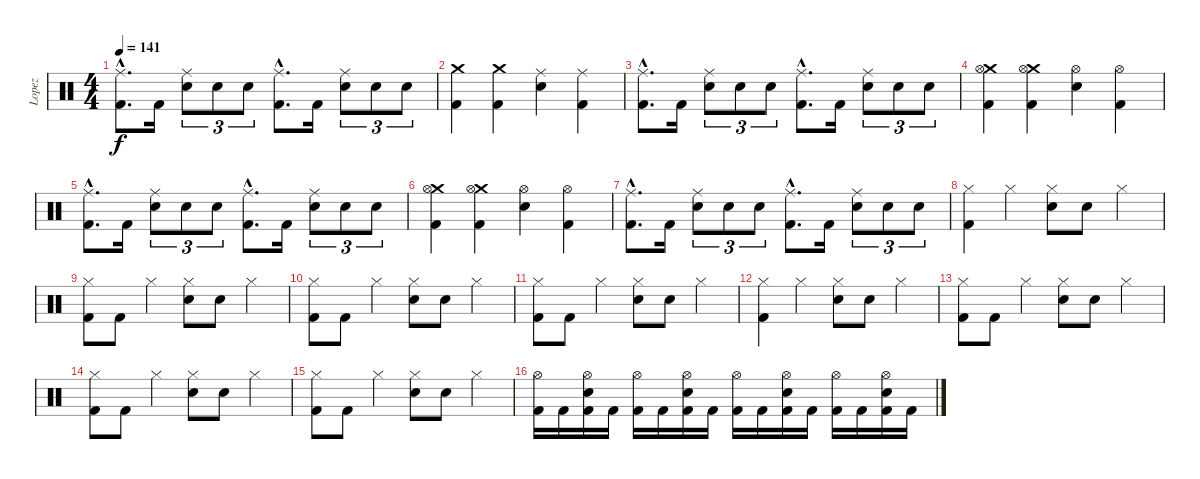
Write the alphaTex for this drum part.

\track ("Lopez" "Lopez") {instrument percussion}
\staff {score}
\articulation defaults
\ts (4 4)
\tempo 141
\clef neutral
\ks c
("Ride (middle)"{hac} "Kick (hit) 2"{hac}).8{d dy f} "Kick (hit) 2".16 ("Ride (middle)" "Electric Snare (hit)").8{tu (3 2)} "Electric Snare (hit)".8{tu (3 2)} "Electric Snare (hit)".8{tu (3 2)} ("Ride (middle)"{hac} "Kick (hit) 2"{hac}).8{d} "Kick (hit) 2".16 ("Ride (middle)" "Electric Snare (hit)").8{tu (3 2)} "Electric Snare (hit)".8{tu (3 2)} "Electric Snare (hit)".8{tu (3 2)} |
("Crash medium (hit)" "Kick (hit) 2").4 ("Crash medium (hit)" "Kick (hit) 2").4 ("Ride (middle)" "Electric Snare (hit)").4 ("Ride (middle)" "Kick (hit) 2").4 |
("Ride (middle)"{hac} "Kick (hit) 2"{hac}).8{d} "Kick (hit) 2".16 ("Ride (middle)" "Electric Snare (hit)").8{tu (3 2)} "Electric Snare (hit)".8{tu (3 2)} "Electric Snare (hit)".8{tu (3 2)} ("Ride (middle)"{hac} "Kick (hit) 2"{hac}).8{d} "Kick (hit) 2".16 ("Ride (middle)" "Electric Snare (hit)").8{tu (3 2)} "Electric Snare (hit)".8{tu (3 2)} "Electric Snare (hit)".8{tu (3 2)} |
("Crash medium (hit)" "Hi-Hat (open)" "Kick (hit) 2").4 ("Crash medium (hit)" "Hi-Hat (open)" "Kick (hit) 2").4 ("Hi-Hat (open)" "Electric Snare (hit)").4 ("Hi-Hat (open)" "Kick (hit) 2").4 |
("Ride (middle)"{hac} "Kick (hit) 2"{hac}).8{d} "Kick (hit) 2".16 ("Ride (middle)" "Electric Snare (hit)").8{tu (3 2)} "Electric Snare (hit)".8{tu (3 2)} "Electric Snare (hit)".8{tu (3 2)} ("Ride (middle)"{hac} "Kick (hit) 2"{hac}).8{d} "Kick (hit) 2".16 ("Ride (middle)" "Electric Snare (hit)").8{tu (3 2)} "Electric Snare (hit)".8{tu (3 2)} "Electric Snare (hit)".8{tu (3 2)} |
("Crash medium (hit)" "Hi-Hat (open)" "Kick (hit) 2").4 ("Crash medium (hit)" "Hi-Hat (open)" "Kick (hit) 2").4 ("Hi-Hat (open)" "Electric Snare (hit)").4 ("Hi-Hat (open)" "Kick (hit) 2").4 |
("Ride (middle)"{hac} "Kick (hit) 2"{hac}).8{d} "Kick (hit) 2".16 ("Ride (middle)" "Electric Snare (hit)").8{tu (3 2)} "Electric Snare (hit)".8{tu (3 2)} "Electric Snare (hit)".8{tu (3 2)} ("Ride (middle)"{hac} "Kick (hit) 2"{hac}).8{d} "Kick (hit) 2".16 ("Ride (middle)" "Electric Snare (hit)").8{tu (3 2)} "Electric Snare (hit)".8{tu (3 2)} "Electric Snare (hit)".8{tu (3 2)} |
("Hi-Hat (closed)" "Kick (hit) 2").4 "Hi-Hat (closed)".4 ("Hi-Hat (closed)" "Electric Snare (hit)").8 "Electric Snare (hit)".8 "Hi-Hat (closed)".4 |
("Hi-Hat (closed)" "Kick (hit) 2").8 "Kick (hit) 2".8 "Hi-Hat (closed)".4 ("Hi-Hat (closed)" "Electric Snare (hit)").8 "Electric Snare (hit)".8 "Hi-Hat (closed)".4 |
("Hi-Hat (closed)" "Kick (hit) 2").8 "Kick (hit) 2".8 "Hi-Hat (closed)".4 ("Hi-Hat (closed)" "Electric Snare (hit)").8 "Electric Snare (hit)".8 "Hi-Hat (closed)".4 |
("Hi-Hat (closed)" "Kick (hit) 2").8 "Kick (hit) 2".8 "Hi-Hat (closed)".4 ("Hi-Hat (closed)" "Electric Snare (hit)").8 "Electric Snare (hit)".8 "Hi-Hat (closed)".4 |
("Hi-Hat (closed)" "Kick (hit) 2").4 "Hi-Hat (closed)".4 ("Hi-Hat (closed)" "Electric Snare (hit)").8 "Electric Snare (hit)".8 "Hi-Hat (closed)".4 |
("Hi-Hat (closed)" "Kick (hit) 2").8 "Kick (hit) 2".8 "Hi-Hat (closed)".4 ("Hi-Hat (closed)" "Electric Snare (hit)").8 "Electric Snare (hit)".8 "Hi-Hat (closed)".4 |
("Hi-Hat (closed)" "Kick (hit) 2").8 "Kick (hit) 2".8 "Hi-Hat (closed)".4 ("Hi-Hat (closed)" "Electric Snare (hit)").8 "Electric Snare (hit)".8 "Hi-Hat (closed)".4 |
("Hi-Hat (closed)" "Kick (hit) 2").8 "Kick (hit) 2".8 "Hi-Hat (closed)".4 ("Hi-Hat (closed)" "Electric Snare (hit)").8 "Electric Snare (hit)".8 "Hi-Hat (closed)".4 |
("Hi-Hat (open)" "Kick (hit) 2").16 "Kick (hit) 2".16 ("Hi-Hat (open)" "Electric Snare (hit)" "Kick (hit) 2").16 "Kick (hit) 2".16 ("Hi-Hat (open)" "Kick (hit) 2").16 "Kick (hit) 2".16 ("Hi-Hat (open)" "Electric Snare (hit)" "Kick (hit) 2").16 "Kick (hit) 2".16 ("Hi-Hat (open)" "Kick (hit) 2").16 "Kick (hit) 2".16 ("Hi-Hat (open)" "Electric Snare (hit)" "Kick (hit) 2").16 "Kick (hit) 2".16 ("Hi-Hat (open)" "Kick (hit) 2").16 "Kick (hit) 2".16 ("Hi-Hat (open)" "Electric Snare (hit)" "Kick (hit) 2").16 "Kick (hit) 2".16
